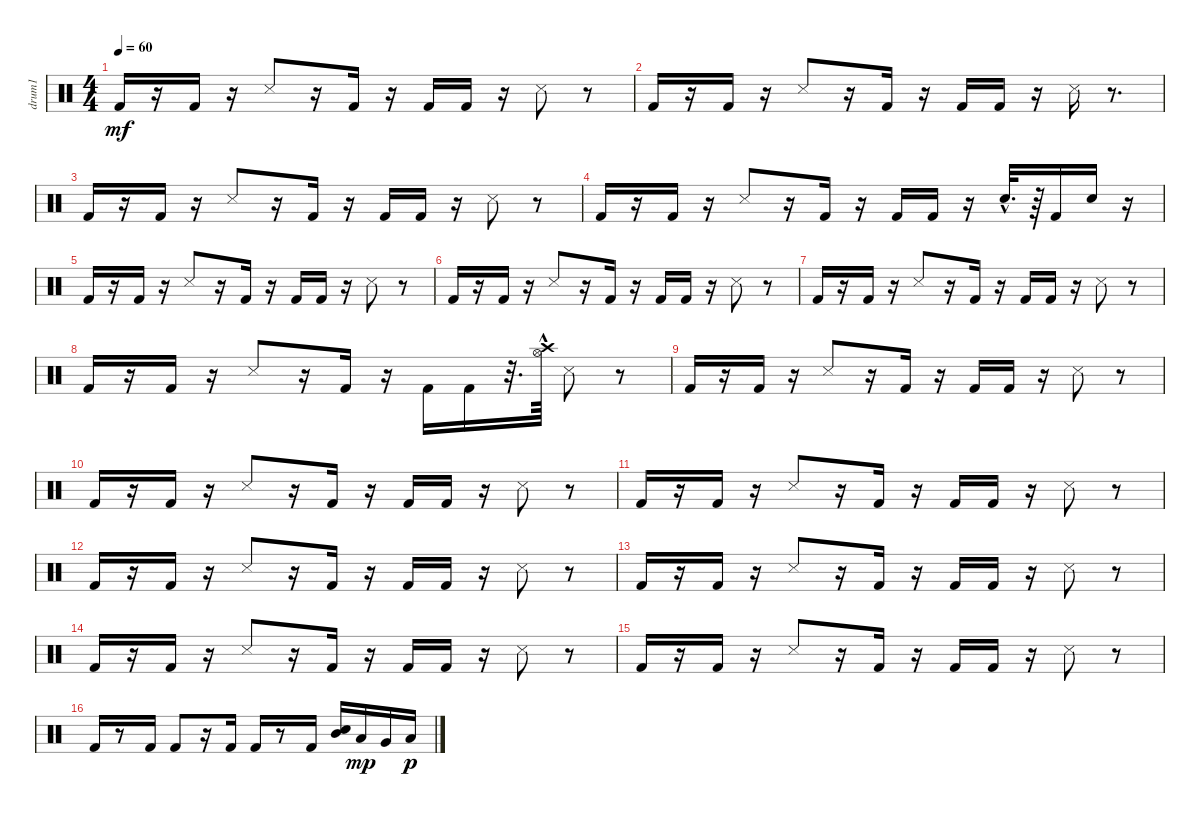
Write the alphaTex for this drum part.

\track ("drum1" "drum1") {instrument percussion}
\staff {score}
\articulation defaults
\ts (4 4)
\tempo 60
\clef neutral
\ks c "Kick (hit) 2".16{dy mf}
r.16 "Kick (hit) 2".16 r.16 "Snare (side stick) 3".8 r.16 "Kick (hit) 2".16 r.16 "Kick (hit) 2".16 "Kick (hit) 2".16 r.16 "Snare (side stick) 3".8 r.8 |
"Kick (hit) 2".16 r.16 "Kick (hit) 2".16 r.16 "Snare (side stick) 3".8 r.16 "Kick (hit) 2".16 r.16 "Kick (hit) 2".16 "Kick (hit) 2".16 r.16 "Snare (side stick) 3".16 r.8{d} |
"Kick (hit) 2".16 r.16 "Kick (hit) 2".16 r.16 "Snare (side stick) 3".8 r.16 "Kick (hit) 2".16 r.16 "Kick (hit) 2".16 "Kick (hit) 2".16 r.16 "Snare (side stick) 3".8 r.8 |
"Kick (hit) 2".16 r.16 "Kick (hit) 2".16 r.16 "Snare (side stick) 3".8 r.16 "Kick (hit) 2".16 r.16 "Kick (hit) 2".16 "Kick (hit) 2".16 r.16 "Electric Snare (hit)"{hac}.32{d} r.64 "Kick (hit) 2".16 "Snare (hit) 2".16 r.16 |
"Kick (hit) 2".16 r.16 "Kick (hit) 2".16 r.16 "Snare (side stick) 3".8 r.16 "Kick (hit) 2".16 r.16 "Kick (hit) 2".16 "Kick (hit) 2".16 r.16 "Snare (side stick) 3".8 r.8 |
"Kick (hit) 2".16 r.16 "Kick (hit) 2".16 r.16 "Snare (side stick) 3".8 r.16 "Kick (hit) 2".16 r.16 "Kick (hit) 2".16 "Kick (hit) 2".16 r.16 "Snare (side stick) 3".8 r.8 |
"Kick (hit) 2".16 r.16 "Kick (hit) 2".16 r.16 "Snare (side stick) 3".8 r.16 "Kick (hit) 2".16 r.16 "Kick (hit) 2".16 "Kick (hit) 2".16 r.16 "Snare (side stick) 3".8 r.8 |
"Kick (hit) 2".16 r.16 "Kick (hit) 2".16 r.16 "Snare (side stick) 3".8 r.16 "Kick (hit) 2".16 r.16 "Kick (hit) 2".16 "Kick (hit) 2".16 r.32{d} ("Hi-Hat (open)"{hac} "Crash high (hit)"{hac}).64 "Snare (side stick) 3".8 r.8 |
"Kick (hit) 2".16 r.16 "Kick (hit) 2".16 r.16 "Snare (side stick) 3".8 r.16 "Kick (hit) 2".16 r.16 "Kick (hit) 2".16 "Kick (hit) 2".16 r.16 "Snare (side stick) 3".8 r.8 |
"Kick (hit) 2".16 r.16 "Kick (hit) 2".16 r.16 "Snare (side stick) 3".8 r.16 "Kick (hit) 2".16 r.16 "Kick (hit) 2".16 "Kick (hit) 2".16 r.16 "Snare (side stick) 3".8 r.8 |
"Kick (hit) 2".16 r.16 "Kick (hit) 2".16 r.16 "Snare (side stick) 3".8 r.16 "Kick (hit) 2".16 r.16 "Kick (hit) 2".16 "Kick (hit) 2".16 r.16 "Snare (side stick) 3".8 r.8 |
"Kick (hit) 2".16 r.16 "Kick (hit) 2".16 r.16 "Snare (side stick) 3".8 r.16 "Kick (hit) 2".16 r.16 "Kick (hit) 2".16 "Kick (hit) 2".16 r.16 "Snare (side stick) 3".8 r.8 |
"Kick (hit) 2".16 r.16 "Kick (hit) 2".16 r.16 "Snare (side stick) 3".8 r.16 "Kick (hit) 2".16 r.16 "Kick (hit) 2".16 "Kick (hit) 2".16 r.16 "Snare (side stick) 3".8 r.8 |
"Kick (hit) 2".16 r.16 "Kick (hit) 2".16 r.16 "Snare (side stick) 3".8 r.16 "Kick (hit) 2".16 r.16 "Kick (hit) 2".16 "Kick (hit) 2".16 r.16 "Snare (side stick) 3".8 r.8 |
"Kick (hit) 2".16 r.16 "Kick (hit) 2".16 r.16 "Snare (side stick) 3".8 r.16 "Kick (hit) 2".16 r.16 "Kick (hit) 2".16 "Kick (hit) 2".16 r.16 "Snare (side stick) 3".8 r.8 |
"Kick (hit) 2".16 r.8 "Kick (hit) 2".16 "Kick (hit) 2".8 r.16 "Kick (hit) 2".16 "Kick (hit) 2".16 r.8 "Kick (hit) 2".16 ("Mid Tom (hit)" "Snare (hit) 2").16 "Low Tom (hit)".16{dy mp} "Very Low Tom (hit)".16 "Low Floor Tom (hit)".16{dy p}
